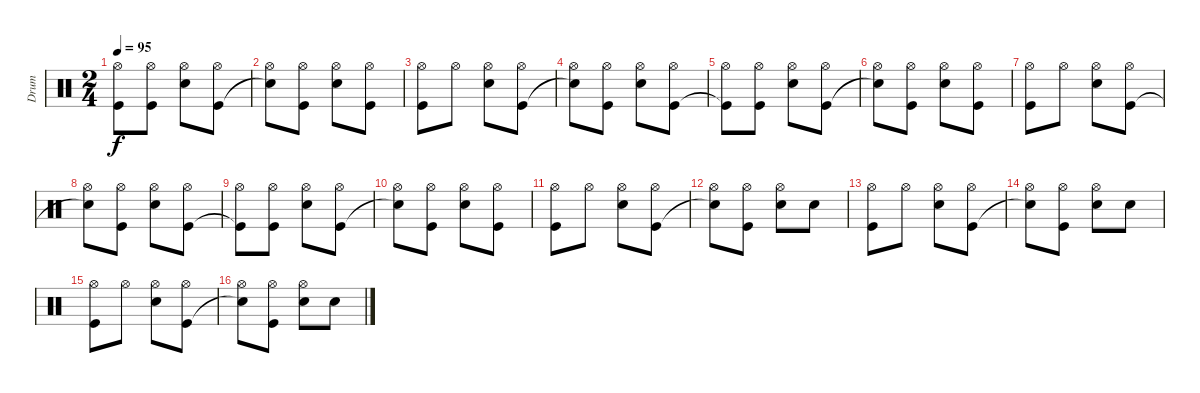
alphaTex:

\track ("Drum" "Drum") {instrument percussion}
\staff {score}
\articulation defaults
\ts (2 4)
\tempo 95
\clef neutral
\ks c
("Kick (hit)"{t} "Hi-Hat (open)").8{dy f} ("Kick (hit)" "Hi-Hat (open)").8 ("Electric Snare (hit)" "Hi-Hat (open)").8 ("Kick (hit)" "Hi-Hat (open)").8 |
("Snare (hit)"{t} "Hi-Hat (open)").8 ("Kick (hit)" "Hi-Hat (open)").8 ("Electric Snare (hit)" "Hi-Hat (open)").8 ("Kick (hit)" "Hi-Hat (open)").8 |
("Kick (hit)" "Hi-Hat (open)").8 "Hi-Hat (open)".8 ("Electric Snare (hit)" "Hi-Hat (open)").8 ("Kick (hit)" "Hi-Hat (open)").8 |
("Snare (hit)"{t} "Hi-Hat (open)").8 ("Kick (hit)" "Hi-Hat (open)").8 ("Electric Snare (hit)" "Hi-Hat (open)").8 ("Kick (hit)" "Hi-Hat (open)").8 |
("Kick (hit)"{t} "Hi-Hat (open)").8 ("Kick (hit)" "Hi-Hat (open)").8 ("Electric Snare (hit)" "Hi-Hat (open)").8 ("Kick (hit)" "Hi-Hat (open)").8 |
("Snare (hit)"{t} "Hi-Hat (open)").8 ("Kick (hit)" "Hi-Hat (open)").8 ("Electric Snare (hit)" "Hi-Hat (open)").8 ("Kick (hit)" "Hi-Hat (open)").8 |
("Kick (hit)" "Hi-Hat (open)").8 "Hi-Hat (open)".8 ("Electric Snare (hit)" "Hi-Hat (open)").8 ("Kick (hit)" "Hi-Hat (open)").8 |
("Snare (hit)"{t} "Hi-Hat (open)").8 ("Kick (hit)" "Hi-Hat (open)").8 ("Electric Snare (hit)" "Hi-Hat (open)").8 ("Kick (hit)" "Hi-Hat (open)").8 |
("Kick (hit)"{t} "Hi-Hat (open)").8 ("Kick (hit)" "Hi-Hat (open)").8 ("Electric Snare (hit)" "Hi-Hat (open)").8 ("Kick (hit)" "Hi-Hat (open)").8 |
("Snare (hit)"{t} "Hi-Hat (open)").8 ("Kick (hit)" "Hi-Hat (open)").8 ("Electric Snare (hit)" "Hi-Hat (open)").8 ("Kick (hit)" "Hi-Hat (open)").8 |
("Kick (hit)" "Hi-Hat (open)").8 "Hi-Hat (open)".8 ("Electric Snare (hit)" "Hi-Hat (open)").8 ("Kick (hit)" "Hi-Hat (open)").8 |
("Snare (hit)"{t} "Hi-Hat (open)").8 ("Kick (hit)" "Hi-Hat (open)").8 ("Electric Snare (hit)" "Hi-Hat (open)").8 "Snare (hit) 2".8 |
("Kick (hit)" "Hi-Hat (open)").8 "Hi-Hat (open)".8 ("Electric Snare (hit)" "Hi-Hat (open)").8 ("Kick (hit)" "Hi-Hat (open)").8 |
("Snare (hit)"{t} "Hi-Hat (open)").8 ("Kick (hit)" "Hi-Hat (open)").8 ("Electric Snare (hit)" "Hi-Hat (open)").8 "Snare (hit) 2".8 |
("Kick (hit)" "Hi-Hat (open)").8 "Hi-Hat (open)".8 ("Electric Snare (hit)" "Hi-Hat (open)").8 ("Kick (hit)" "Hi-Hat (open)").8 |
("Snare (hit)"{t} "Hi-Hat (open)").8 ("Kick (hit)" "Hi-Hat (open)").8 ("Electric Snare (hit)" "Hi-Hat (open)").8 "Snare (hit) 2".8
